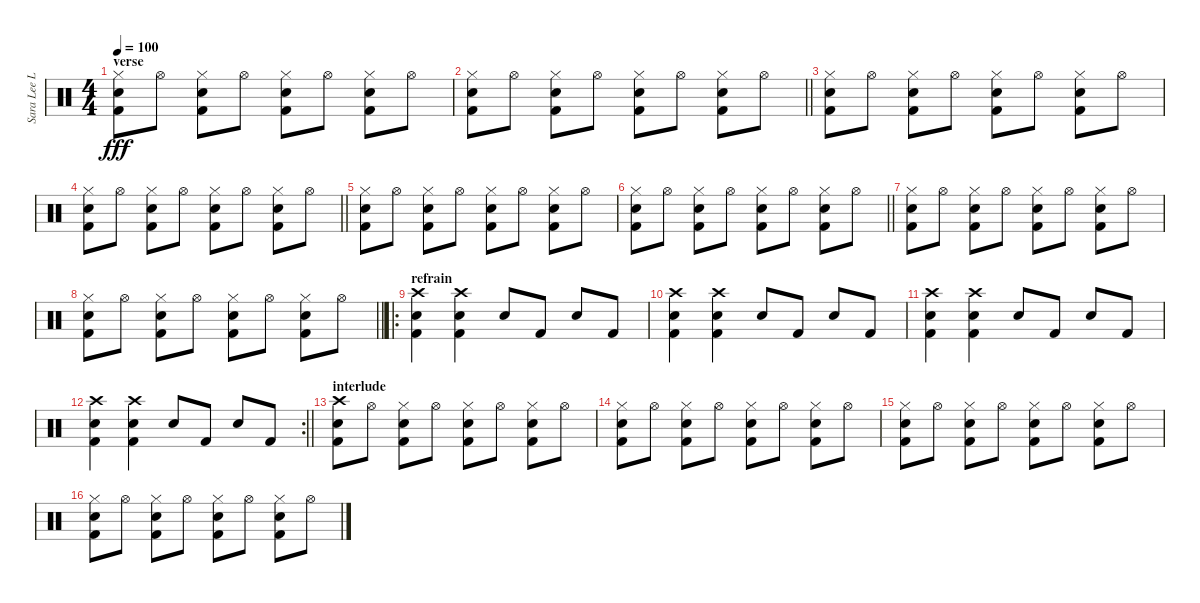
\track ("Sara Lee Lucas (drums)" "Sara Lee L") {instrument percussion}
\staff {score}
\articulation defaults
\ts (4 4)
\section ("" "verse")
\tempo 100
\clef neutral
\ks c
("Hi-Hat (closed)" "Snare (hit) 2" "Kick (hit) 2").8{dy fff} "Hi-Hat (open)".8 ("Hi-Hat (closed)" "Snare (hit) 2" "Kick (hit) 2").8 "Hi-Hat (open)".8 ("Hi-Hat (closed)" "Snare (hit) 2" "Kick (hit) 2").8 "Hi-Hat (open)".8 ("Hi-Hat (closed)" "Snare (hit) 2" "Kick (hit) 2").8 "Hi-Hat (open)".8 |
\barLineRight lightlight
("Hi-Hat (closed)" "Snare (hit) 2" "Kick (hit) 2").8 "Hi-Hat (open)".8 ("Hi-Hat (closed)" "Snare (hit) 2" "Kick (hit) 2").8 "Hi-Hat (open)".8 ("Hi-Hat (closed)" "Snare (hit) 2" "Kick (hit) 2").8 "Hi-Hat (open)".8 ("Hi-Hat (closed)" "Snare (hit) 2" "Kick (hit) 2").8 "Hi-Hat (open)".8 |
("Hi-Hat (closed)" "Snare (hit) 2" "Kick (hit) 2").8 "Hi-Hat (open)".8 ("Hi-Hat (closed)" "Snare (hit) 2" "Kick (hit) 2").8 "Hi-Hat (open)".8 ("Hi-Hat (closed)" "Snare (hit) 2" "Kick (hit) 2").8 "Hi-Hat (open)".8 ("Hi-Hat (closed)" "Snare (hit) 2" "Kick (hit) 2").8 "Hi-Hat (open)".8 |
\barLineRight lightlight
("Hi-Hat (closed)" "Snare (hit) 2" "Kick (hit) 2").8 "Hi-Hat (open)".8 ("Hi-Hat (closed)" "Snare (hit) 2" "Kick (hit) 2").8 "Hi-Hat (open)".8 ("Hi-Hat (closed)" "Snare (hit) 2" "Kick (hit) 2").8 "Hi-Hat (open)".8 ("Hi-Hat (closed)" "Snare (hit) 2" "Kick (hit) 2").8 "Hi-Hat (open)".8 |
("Hi-Hat (closed)" "Snare (hit) 2" "Kick (hit) 2").8 "Hi-Hat (open)".8 ("Hi-Hat (closed)" "Snare (hit) 2" "Kick (hit) 2").8 "Hi-Hat (open)".8 ("Hi-Hat (closed)" "Snare (hit) 2" "Kick (hit) 2").8 "Hi-Hat (open)".8 ("Hi-Hat (closed)" "Snare (hit) 2" "Kick (hit) 2").8 "Hi-Hat (open)".8 |
\barLineRight lightlight
("Hi-Hat (closed)" "Snare (hit) 2" "Kick (hit) 2").8 "Hi-Hat (open)".8 ("Hi-Hat (closed)" "Snare (hit) 2" "Kick (hit) 2").8 "Hi-Hat (open)".8 ("Hi-Hat (closed)" "Snare (hit) 2" "Kick (hit) 2").8 "Hi-Hat (open)".8 ("Hi-Hat (closed)" "Snare (hit) 2" "Kick (hit) 2").8 "Hi-Hat (open)".8 |
("Hi-Hat (closed)" "Snare (hit) 2" "Kick (hit) 2").8 "Hi-Hat (open)".8 ("Hi-Hat (closed)" "Snare (hit) 2" "Kick (hit) 2").8 "Hi-Hat (open)".8 ("Hi-Hat (closed)" "Snare (hit) 2" "Kick (hit) 2").8 "Hi-Hat (open)".8 ("Hi-Hat (closed)" "Snare (hit) 2" "Kick (hit) 2").8 "Hi-Hat (open)".8 |
\barLineRight lightlight
("Hi-Hat (closed)" "Snare (hit) 2" "Kick (hit) 2").8 "Hi-Hat (open)".8 ("Hi-Hat (closed)" "Snare (hit) 2" "Kick (hit) 2").8 "Hi-Hat (open)".8 ("Hi-Hat (closed)" "Snare (hit) 2" "Kick (hit) 2").8 "Hi-Hat (open)".8 ("Hi-Hat (closed)" "Snare (hit) 2" "Kick (hit) 2").8 "Hi-Hat (open)".8 |
\ro
\section ("" "refrain")
("Crash high (hit)" "Snare (hit) 2" "Kick (hit) 2").4 ("Crash high (hit)" "Snare (hit) 2" "Kick (hit) 2").4 "Snare (hit) 2".8 "Kick (hit) 2".8 "Snare (hit) 2".8 "Kick (hit) 2".8 |
("Crash high (hit)" "Snare (hit) 2" "Kick (hit) 2").4 ("Crash high (hit)" "Snare (hit) 2" "Kick (hit) 2").4 "Snare (hit) 2".8 "Kick (hit) 2".8 "Snare (hit) 2".8 "Kick (hit) 2".8 |
("Crash high (hit)" "Snare (hit) 2" "Kick (hit) 2").4 ("Crash high (hit)" "Snare (hit) 2" "Kick (hit) 2").4 "Snare (hit) 2".8 "Kick (hit) 2".8 "Snare (hit) 2".8 "Kick (hit) 2".8 |
\rc 2
\barLineRight lightlight
("Crash high (hit)" "Snare (hit) 2" "Kick (hit) 2").4 ("Crash high (hit)" "Snare (hit) 2" "Kick (hit) 2").4 "Snare (hit) 2".8 "Kick (hit) 2".8 "Snare (hit) 2".8 "Kick (hit) 2".8 |
\section ("" "interlude")
("Crash high (hit)" "Snare (hit) 2" "Kick (hit) 2").8 "Hi-Hat (open)".8 ("Hi-Hat (closed)" "Snare (hit) 2" "Kick (hit) 2").8 "Hi-Hat (open)".8 ("Hi-Hat (closed)" "Snare (hit) 2" "Kick (hit) 2").8 "Hi-Hat (open)".8 ("Hi-Hat (closed)" "Snare (hit) 2" "Kick (hit) 2").8 "Hi-Hat (open)".8 |
("Hi-Hat (closed)" "Snare (hit) 2" "Kick (hit) 2").8 "Hi-Hat (open)".8 ("Hi-Hat (closed)" "Snare (hit) 2" "Kick (hit) 2").8 "Hi-Hat (open)".8 ("Hi-Hat (closed)" "Snare (hit) 2" "Kick (hit) 2").8 "Hi-Hat (open)".8 ("Hi-Hat (closed)" "Snare (hit) 2" "Kick (hit) 2").8 "Hi-Hat (open)".8 |
("Hi-Hat (closed)" "Snare (hit) 2" "Kick (hit) 2").8 "Hi-Hat (open)".8 ("Hi-Hat (closed)" "Snare (hit) 2" "Kick (hit) 2").8 "Hi-Hat (open)".8 ("Hi-Hat (closed)" "Snare (hit) 2" "Kick (hit) 2").8 "Hi-Hat (open)".8 ("Hi-Hat (closed)" "Snare (hit) 2" "Kick (hit) 2").8 "Hi-Hat (open)".8 |
("Hi-Hat (closed)" "Snare (hit) 2" "Kick (hit) 2").8 "Hi-Hat (open)".8 ("Hi-Hat (closed)" "Snare (hit) 2" "Kick (hit) 2").8 "Hi-Hat (open)".8 ("Hi-Hat (closed)" "Snare (hit) 2" "Kick (hit) 2").8 "Hi-Hat (open)".8 ("Hi-Hat (closed)" "Snare (hit) 2" "Kick (hit) 2").8 "Hi-Hat (open)".8
